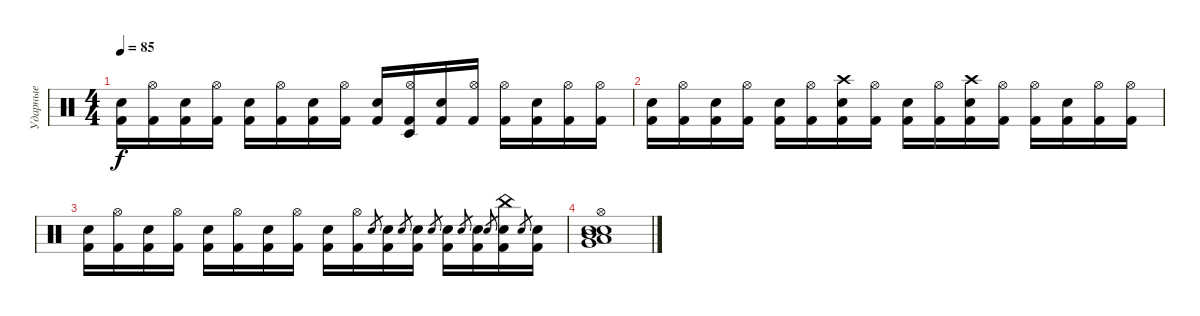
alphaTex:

\track ("Ударные" "Ударные") {instrument percussion}
\staff {score}
\articulation defaults
\ts (4 4)
\tempo 85
\clef neutral
\ks c
("Electric Snare (hit)" "Kick (hit) 2").16{dy f} ("Hi-Hat (open)" "Kick (hit) 2").16 ("Electric Snare (hit)" "Kick (hit) 2").16 ("Hi-Hat (open)" "Kick (hit) 2").16 ("Electric Snare (hit)" "Kick (hit) 2").16 ("Hi-Hat (open)" "Kick (hit) 2").16 ("Electric Snare (hit)" "Kick (hit) 2").16 ("Hi-Hat (open)" "Kick (hit) 2").16 ("Electric Snare (hit)" "Kick (hit) 2").16 ("Hi-Hat (open)" "Timbale low (hit)" "Kick (hit) 2").16 ("Electric Snare (hit)" "Kick (hit) 2").16 ("Hi-Hat (open)" "Kick (hit) 2").16 ("Hi-Hat (open)" "Kick (hit) 2").16 ("Electric Snare (hit)" "Kick (hit) 2").16 ("Hi-Hat (open)" "Kick (hit) 2").16 ("Hi-Hat (open)" "Kick (hit) 2").16 |
("Electric Snare (hit)" "Kick (hit) 2").16 ("Hi-Hat (open)" "Kick (hit) 2").16 ("Electric Snare (hit)" "Kick (hit) 2").16 ("Hi-Hat (open)" "Kick (hit) 2").16 ("Electric Snare (hit)" "Kick (hit) 2").16 ("Hi-Hat (open)" "Kick (hit) 2").16 ("Crash high (hit)" "Electric Snare (hit)" "Kick (hit) 2").16 ("Hi-Hat (open)" "Kick (hit) 2").16 ("Electric Snare (hit)" "Kick (hit) 2").16 ("Hi-Hat (open)" "Kick (hit) 2").16 ("Crash high (hit)" "Electric Snare (hit)" "Kick (hit) 2").16 ("Hi-Hat (open)" "Kick (hit) 2").16 ("Hi-Hat (open)" "Kick (hit) 2").16 ("Electric Snare (hit)" "Kick (hit) 2").16 ("Hi-Hat (open)" "Kick (hit) 2").16 ("Hi-Hat (open)" "Kick (hit) 2").16 |
("Electric Snare (hit)" "Kick (hit) 2").16 ("Hi-Hat (open)" "Kick (hit) 2").16 ("Electric Snare (hit)" "Kick (hit) 2").16 ("Hi-Hat (open)" "Kick (hit) 2").16 ("Electric Snare (hit)" "Kick (hit) 2").16 ("Hi-Hat (open)" "Kick (hit) 2").16 ("Electric Snare (hit)" "Kick (hit) 2").16 ("Hi-Hat (open)" "Kick (hit) 2").16 ("Electric Snare (hit)" "Kick (hit) 2").16 ("Hi-Hat (open)" "Kick (hit) 2").16 "Electric Snare (hit)".8{gr} ("Electric Snare (hit)" "Kick (hit) 2").16 "Electric Snare (hit)".8{gr} ("Electric Snare (hit)" "Kick (hit) 2").16 "Electric Snare (hit)".8{gr} ("Electric Snare (hit)" "Kick (hit) 2").16 "Electric Snare (hit)".8{gr} ("Electric Snare (hit)" "Kick (hit) 2").16 "Electric Snare (hit)".8{gr} ("China (hit)" "Electric Snare (hit)" "Kick (hit) 2").16 "Electric Snare (hit)".8{gr} ("Electric Snare (hit)" "Kick (hit) 2").16 |
("Low Tom (hit)" "Electric Snare (hit)" "Snare (hit) 2" "Very Low Tom (hit)" "Mid Tom (hit)" "Hi-Hat (open)").1
